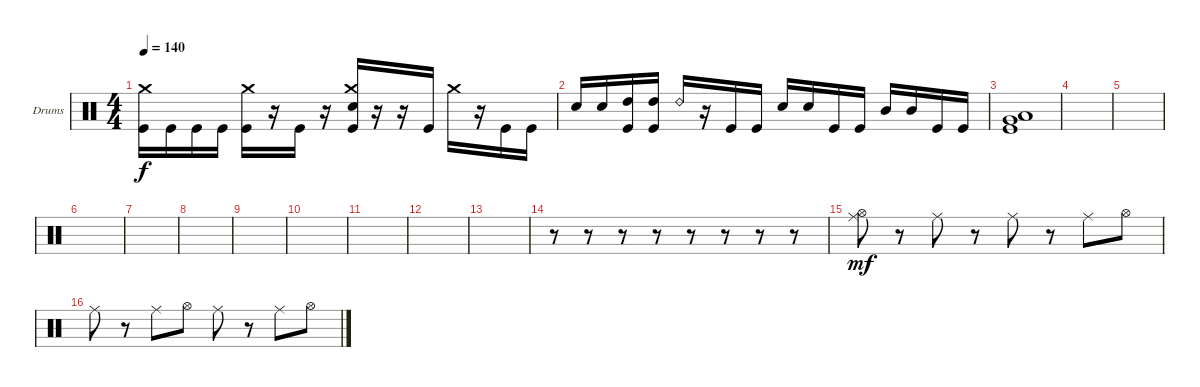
\bracketExtendMode groupsimilarinstruments
\firstSystemTrackNameOrientation horizontal
\otherSystemsTrackNameOrientation horizontal
\track ("Drumkit" "Drums") {instrument percussion}
\staff {score}
\articulation defaults
\ts (4 4)
\tempo 140
\clef neutral
\ks c
("Kick (hit)" "Crash medium (hit)").16{dy f} "Kick (hit)".16 "Kick (hit)".16 "Kick (hit)".16 ("Kick (hit)" "Crash medium (hit)").16 r.16 "Kick (hit)".16 r.16 ("Kick (hit)" "Crash medium (hit)" "Snare (hit) 2").16 r.16 r.16 "Kick (hit)".16 "Crash medium (hit)".16 r.16 "Kick (hit)".16 "Kick (hit)".16 |
"Snare (hit) 2".16 "Snare (hit) 2".16 ("High Tom (hit)" "Kick (hit)").16 ("High Tom (hit)" "Kick (hit)").16 "Ride (bell) 2".16 r.16 "Kick (hit)".16 "Kick (hit)".16 "Snare (hit) 2".16 "Snare (hit) 2".16 "Kick (hit)".16 "Kick (hit)".16 "Mid Tom (hit)".16 "Mid Tom (hit)".16 "Kick (hit)".16 "Kick (hit)".16 |
("Low Tom (hit)" "Very Low Tom (hit)" "Kick (hit)").1 |
|
|
|
|
|
|
|
|
|
|
r.8 r.8 r.8 r.8 r.8 r.8 r.8 r.8 |
("Ride (middle)" "Hi-Hat (open)").8{dy mf} r.8 "Ride (middle)".8 r.8 "Ride (middle)".8 r.8 "Ride (middle)".8 "Hi-Hat (open)".8 |
"Ride (middle)".8 r.8 "Ride (middle)".8 "Hi-Hat (open)".8 "Ride (middle)".8 r.8 "Ride (middle)".8 "Hi-Hat (open)".8
